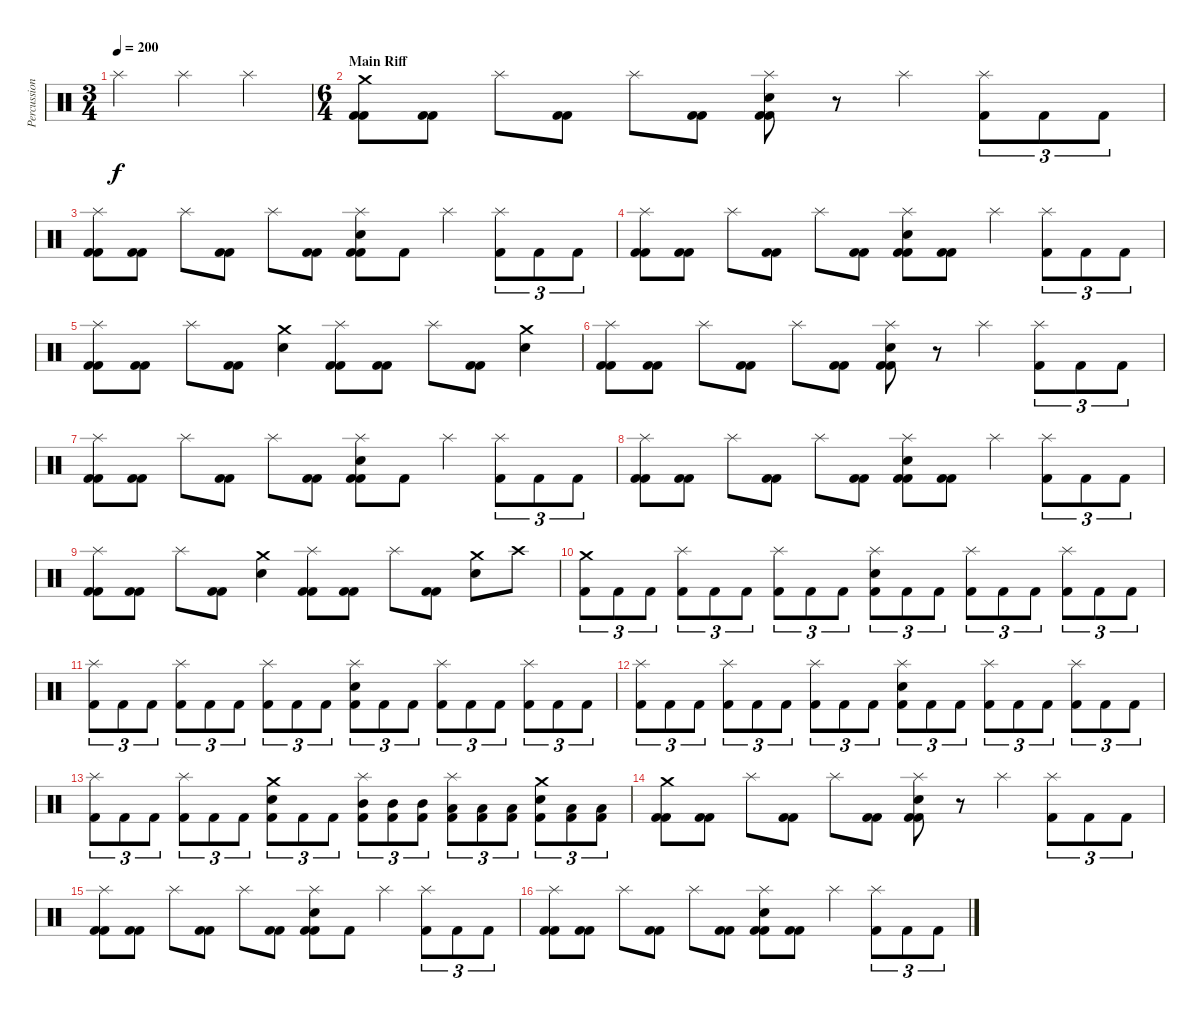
\track ("Percussion" "Percussion") {instrument percussion}
\staff {score}
\articulation defaults
\ts (3 4)
\tempo 200
\clef neutral
\ks c "Splash (hit)".4{dy f} "Splash (hit)".4 "Splash (hit)".4
|
\ts (6 4)
\section ("" "Main Riff")
("Crash medium (hit)" "Kick (hit) 2" "Kick (hit) 2").8 ("Kick (hit) 2" "Kick (hit) 2").8 "Splash (hit)".8 ("Kick (hit) 2" "Kick (hit) 2").8 "Splash (hit)".8 ("Kick (hit) 2" "Kick (hit) 2").8 ("Splash (hit)" "Electric Snare (hit)" "Kick (hit) 2" "Kick (hit) 2").8 r.8 "Splash (hit)".4 ("Splash (hit)" "Kick (hit) 2").8{tu (3 2)} "Kick (hit) 2".8{tu (3 2)} "Kick (hit) 2".8{tu (3 2)} |
("Splash (hit)" "Kick (hit) 2" "Kick (hit) 2").8 ("Kick (hit) 2" "Kick (hit) 2").8 "Splash (hit)".8 ("Kick (hit) 2" "Kick (hit) 2").8 "Splash (hit)".8 ("Kick (hit) 2" "Kick (hit) 2").8 ("Splash (hit)" "Electric Snare (hit)" "Kick (hit) 2" "Kick (hit) 2").8 "Kick (hit) 2".8 "Splash (hit)".4 ("Splash (hit)" "Kick (hit) 2").8{tu (3 2)} "Kick (hit) 2".8{tu (3 2)} "Kick (hit) 2".8{tu (3 2)} |
("Splash (hit)" "Kick (hit) 2" "Kick (hit) 2").8 ("Kick (hit) 2" "Kick (hit) 2").8 "Splash (hit)".8 ("Kick (hit) 2" "Kick (hit) 2").8 "Splash (hit)".8 ("Kick (hit) 2" "Kick (hit) 2").8 ("Splash (hit)" "Electric Snare (hit)" "Kick (hit) 2" "Kick (hit) 2").8 ("Kick (hit) 2" "Kick (hit) 2").8 "Splash (hit)".4 ("Splash (hit)" "Kick (hit) 2").8{tu (3 2)} "Kick (hit) 2".8{tu (3 2)} "Kick (hit) 2".8{tu (3 2)} |
("Splash (hit)" "Kick (hit) 2" "Kick (hit) 2").8 ("Kick (hit) 2" "Kick (hit) 2").8 "Splash (hit)".8 ("Kick (hit) 2" "Kick (hit) 2").8 ("Crash medium (hit)" "Electric Snare (hit)").4 ("Splash (hit)" "Kick (hit) 2" "Kick (hit) 2").8 ("Kick (hit) 2" "Kick (hit) 2").8 "Splash (hit)".8 ("Kick (hit) 2" "Kick (hit) 2").8 ("Crash medium (hit)" "Electric Snare (hit)").4 |
("Splash (hit)" "Kick (hit) 2" "Kick (hit) 2").8 ("Kick (hit) 2" "Kick (hit) 2").8 "Splash (hit)".8 ("Kick (hit) 2" "Kick (hit) 2").8 "Splash (hit)".8 ("Kick (hit) 2" "Kick (hit) 2").8 ("Splash (hit)" "Electric Snare (hit)" "Kick (hit) 2" "Kick (hit) 2").8 r.8 "Splash (hit)".4 ("Splash (hit)" "Kick (hit) 2").8{tu (3 2)} "Kick (hit) 2".8{tu (3 2)} "Kick (hit) 2".8{tu (3 2)} |
("Splash (hit)" "Kick (hit) 2" "Kick (hit) 2").8 ("Kick (hit) 2" "Kick (hit) 2").8 "Splash (hit)".8 ("Kick (hit) 2" "Kick (hit) 2").8 "Splash (hit)".8 ("Kick (hit) 2" "Kick (hit) 2").8 ("Splash (hit)" "Electric Snare (hit)" "Kick (hit) 2" "Kick (hit) 2").8 "Kick (hit) 2".8 "Splash (hit)".4 ("Splash (hit)" "Kick (hit) 2").8{tu (3 2)} "Kick (hit) 2".8{tu (3 2)} "Kick (hit) 2".8{tu (3 2)} |
("Splash (hit)" "Kick (hit) 2" "Kick (hit) 2").8 ("Kick (hit) 2" "Kick (hit) 2").8 "Splash (hit)".8 ("Kick (hit) 2" "Kick (hit) 2").8 "Splash (hit)".8 ("Kick (hit) 2" "Kick (hit) 2").8 ("Splash (hit)" "Electric Snare (hit)" "Kick (hit) 2" "Kick (hit) 2").8 ("Kick (hit) 2" "Kick (hit) 2").8 "Splash (hit)".4 ("Splash (hit)" "Kick (hit) 2").8{tu (3 2)} "Kick (hit) 2".8{tu (3 2)} "Kick (hit) 2".8{tu (3 2)} |
("Splash (hit)" "Kick (hit) 2" "Kick (hit) 2").8 ("Kick (hit) 2" "Kick (hit) 2").8 "Splash (hit)".8 ("Kick (hit) 2" "Kick (hit) 2").8 ("Crash medium (hit)" "Electric Snare (hit)").4 ("Splash (hit)" "Kick (hit) 2" "Kick (hit) 2").8 ("Kick (hit) 2" "Kick (hit) 2").8 "Splash (hit)".8 ("Kick (hit) 2" "Kick (hit) 2").8 ("Crash medium (hit)" "Electric Snare (hit)").8 "Crash high (hit)".8 |
("Crash medium (hit)" "Kick (hit) 2").8{tu (3 2)} "Kick (hit) 2".8{tu (3 2)} "Kick (hit) 2".8{tu (3 2)} ("Splash (hit)" "Kick (hit) 2").8{tu (3 2)} "Kick (hit) 2".8{tu (3 2)} "Kick (hit) 2".8{tu (3 2)} ("Splash (hit)" "Kick (hit) 2").8{tu (3 2)} "Kick (hit) 2".8{tu (3 2)} "Kick (hit) 2".8{tu (3 2)} ("Splash (hit)" "Electric Snare (hit)" "Kick (hit) 2").8{tu (3 2)} "Kick (hit) 2".8{tu (3 2)} "Kick (hit) 2".8{tu (3 2)} ("Splash (hit)" "Kick (hit) 2").8{tu (3 2)} "Kick (hit) 2".8{tu (3 2)} "Kick (hit) 2".8{tu (3 2)} ("Splash (hit)" "Kick (hit) 2").8{tu (3 2)} "Kick (hit) 2".8{tu (3 2)} "Kick (hit) 2".8{tu (3 2)} |
("Splash (hit)" "Kick (hit) 2").8{tu (3 2)} "Kick (hit) 2".8{tu (3 2)} "Kick (hit) 2".8{tu (3 2)} ("Splash (hit)" "Kick (hit) 2").8{tu (3 2)} "Kick (hit) 2".8{tu (3 2)} "Kick (hit) 2".8{tu (3 2)} ("Splash (hit)" "Kick (hit) 2").8{tu (3 2)} "Kick (hit) 2".8{tu (3 2)} "Kick (hit) 2".8{tu (3 2)} ("Splash (hit)" "Electric Snare (hit)" "Kick (hit) 2").8{tu (3 2)} "Kick (hit) 2".8{tu (3 2)} "Kick (hit) 2".8{tu (3 2)} ("Splash (hit)" "Kick (hit) 2").8{tu (3 2)} "Kick (hit) 2".8{tu (3 2)} "Kick (hit) 2".8{tu (3 2)} ("Splash (hit)" "Kick (hit) 2").8{tu (3 2)} "Kick (hit) 2".8{tu (3 2)} "Kick (hit) 2".8{tu (3 2)} |
("Splash (hit)" "Kick (hit) 2").8{tu (3 2)} "Kick (hit) 2".8{tu (3 2)} "Kick (hit) 2".8{tu (3 2)} ("Splash (hit)" "Kick (hit) 2").8{tu (3 2)} "Kick (hit) 2".8{tu (3 2)} "Kick (hit) 2".8{tu (3 2)} ("Splash (hit)" "Kick (hit) 2").8{tu (3 2)} "Kick (hit) 2".8{tu (3 2)} "Kick (hit) 2".8{tu (3 2)} ("Splash (hit)" "Electric Snare (hit)" "Kick (hit) 2").8{tu (3 2)} "Kick (hit) 2".8{tu (3 2)} "Kick (hit) 2".8{tu (3 2)} ("Splash (hit)" "Kick (hit) 2").8{tu (3 2)} "Kick (hit) 2".8{tu (3 2)} "Kick (hit) 2".8{tu (3 2)} ("Splash (hit)" "Kick (hit) 2").8{tu (3 2)} "Kick (hit) 2".8{tu (3 2)} "Kick (hit) 2".8{tu (3 2)} |
("Splash (hit)" "Kick (hit) 2").8{tu (3 2)} "Kick (hit) 2".8{tu (3 2)} "Kick (hit) 2".8{tu (3 2)} ("Splash (hit)" "Kick (hit) 2").8{tu (3 2)} "Kick (hit) 2".8{tu (3 2)} "Kick (hit) 2".8{tu (3 2)} ("Crash medium (hit)" "Electric Snare (hit)" "Kick (hit) 2").8{tu (3 2)} "Kick (hit) 2".8{tu (3 2)} "Kick (hit) 2".8{tu (3 2)} ("Splash (hit)" "Mid Tom (hit)" "Kick (hit) 2").8{tu (3 2)} ("Mid Tom (hit)" "Kick (hit) 2").8{tu (3 2)} ("Mid Tom (hit)" "Kick (hit) 2").8{tu (3 2)} ("Splash (hit)" "Low Tom (hit)" "Kick (hit) 2").8{tu (3 2)} ("Low Tom (hit)" "Kick (hit) 2").8{tu (3 2)} ("Low Tom (hit)" "Kick (hit) 2").8{tu (3 2)} ("Crash medium (hit)" "Electric Snare (hit)" "Kick (hit) 2").8{tu (3 2)} ("Low Floor Tom (hit)" "Kick (hit) 2").8{tu (3 2)} ("Low Floor Tom (hit)" "Kick (hit) 2").8{tu (3 2)} |
("Crash medium (hit)" "Kick (hit) 2" "Kick (hit) 2").8 ("Kick (hit) 2" "Kick (hit) 2").8 "Splash (hit)".8 ("Kick (hit) 2" "Kick (hit) 2").8 "Splash (hit)".8 ("Kick (hit) 2" "Kick (hit) 2").8 ("Splash (hit)" "Electric Snare (hit)" "Kick (hit) 2" "Kick (hit) 2").8 r.8 "Splash (hit)".4 ("Splash (hit)" "Kick (hit) 2").8{tu (3 2)} "Kick (hit) 2".8{tu (3 2)} "Kick (hit) 2".8{tu (3 2)} |
("Splash (hit)" "Kick (hit) 2" "Kick (hit) 2").8 ("Kick (hit) 2" "Kick (hit) 2").8 "Splash (hit)".8 ("Kick (hit) 2" "Kick (hit) 2").8 "Splash (hit)".8 ("Kick (hit) 2" "Kick (hit) 2").8 ("Splash (hit)" "Electric Snare (hit)" "Kick (hit) 2" "Kick (hit) 2").8 "Kick (hit) 2".8 "Splash (hit)".4 ("Splash (hit)" "Kick (hit) 2").8{tu (3 2)} "Kick (hit) 2".8{tu (3 2)} "Kick (hit) 2".8{tu (3 2)} |
("Splash (hit)" "Kick (hit) 2" "Kick (hit) 2").8 ("Kick (hit) 2" "Kick (hit) 2").8 "Splash (hit)".8 ("Kick (hit) 2" "Kick (hit) 2").8 "Splash (hit)".8 ("Kick (hit) 2" "Kick (hit) 2").8 ("Splash (hit)" "Electric Snare (hit)" "Kick (hit) 2" "Kick (hit) 2").8 ("Kick (hit) 2" "Kick (hit) 2").8 "Splash (hit)".4 ("Splash (hit)" "Kick (hit) 2").8{tu (3 2)} "Kick (hit) 2".8{tu (3 2)} "Kick (hit) 2".8{tu (3 2)}
